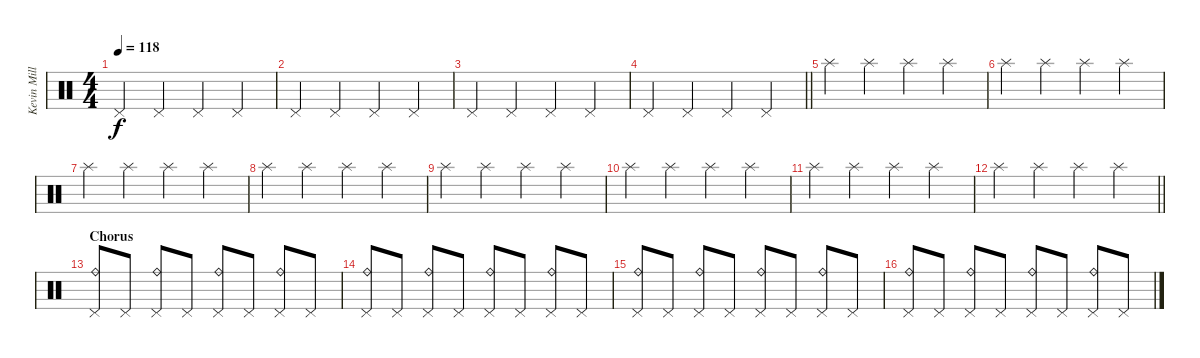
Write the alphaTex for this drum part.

\track ("Kevin Miller (Drums)" "Kevin Mill") {instrument percussion}
\staff {score}
\articulation defaults
\ts (4 4)
\tempo 118
\clef neutral
\ks c "Pedal Hi-Hat (hit)".4{dy f} "Pedal Hi-Hat (hit)".4 "Pedal Hi-Hat (hit)".4 "Pedal Hi-Hat (hit)".4
|
"Pedal Hi-Hat (hit)".4 "Pedal Hi-Hat (hit)".4 "Pedal Hi-Hat (hit)".4 "Pedal Hi-Hat (hit)".4 |
"Pedal Hi-Hat (hit)".4 "Pedal Hi-Hat (hit)".4 "Pedal Hi-Hat (hit)".4 "Pedal Hi-Hat (hit)".4 |
\barLineRight lightlight "Pedal Hi-Hat (hit)".4 "Pedal Hi-Hat (hit)".4 "Pedal Hi-Hat (hit)".4 "Pedal Hi-Hat (hit)".4
|
"Splash (hit)".4 "Splash (hit)".4 "Splash (hit)".4 "Splash (hit)".4 |
"Splash (hit)".4 "Splash (hit)".4 "Splash (hit)".4 "Splash (hit)".4 |
"Splash (hit)".4 "Splash (hit)".4 "Splash (hit)".4 "Splash (hit)".4 |
"Splash (hit)".4 "Splash (hit)".4 "Splash (hit)".4 "Splash (hit)".4 |
"Splash (hit)".4 "Splash (hit)".4 "Splash (hit)".4 "Splash (hit)".4 |
"Splash (hit)".4 "Splash (hit)".4 "Splash (hit)".4 "Splash (hit)".4 |
"Splash (hit)".4 "Splash (hit)".4 "Splash (hit)".4 "Splash (hit)".4 |
\barLineRight lightlight "Splash (hit)".4 "Splash (hit)".4 "Splash (hit)".4 "Splash (hit)".4
|
\section ("" "Chorus")
("Pedal Hi-Hat (hit)" "Ride (bell)").8 "Pedal Hi-Hat (hit)".8 ("Pedal Hi-Hat (hit)" "Ride (bell)").8 "Pedal Hi-Hat (hit)".8 ("Pedal Hi-Hat (hit)" "Ride (bell)").8 "Pedal Hi-Hat (hit)".8 ("Pedal Hi-Hat (hit)" "Ride (bell)").8 "Pedal Hi-Hat (hit)".8 |
("Pedal Hi-Hat (hit)" "Ride (bell)").8 "Pedal Hi-Hat (hit)".8 ("Pedal Hi-Hat (hit)" "Ride (bell)").8 "Pedal Hi-Hat (hit)".8 ("Pedal Hi-Hat (hit)" "Ride (bell)").8 "Pedal Hi-Hat (hit)".8 ("Pedal Hi-Hat (hit)" "Ride (bell)").8 "Pedal Hi-Hat (hit)".8 |
("Pedal Hi-Hat (hit)" "Ride (bell)").8 "Pedal Hi-Hat (hit)".8 ("Pedal Hi-Hat (hit)" "Ride (bell)").8 "Pedal Hi-Hat (hit)".8 ("Pedal Hi-Hat (hit)" "Ride (bell)").8 "Pedal Hi-Hat (hit)".8 ("Pedal Hi-Hat (hit)" "Ride (bell)").8 "Pedal Hi-Hat (hit)".8 |
("Pedal Hi-Hat (hit)" "Ride (bell)").8 "Pedal Hi-Hat (hit)".8 ("Pedal Hi-Hat (hit)" "Ride (bell)").8 "Pedal Hi-Hat (hit)".8 ("Pedal Hi-Hat (hit)" "Ride (bell)").8 "Pedal Hi-Hat (hit)".8 ("Pedal Hi-Hat (hit)" "Ride (bell)").8 "Pedal Hi-Hat (hit)".8
